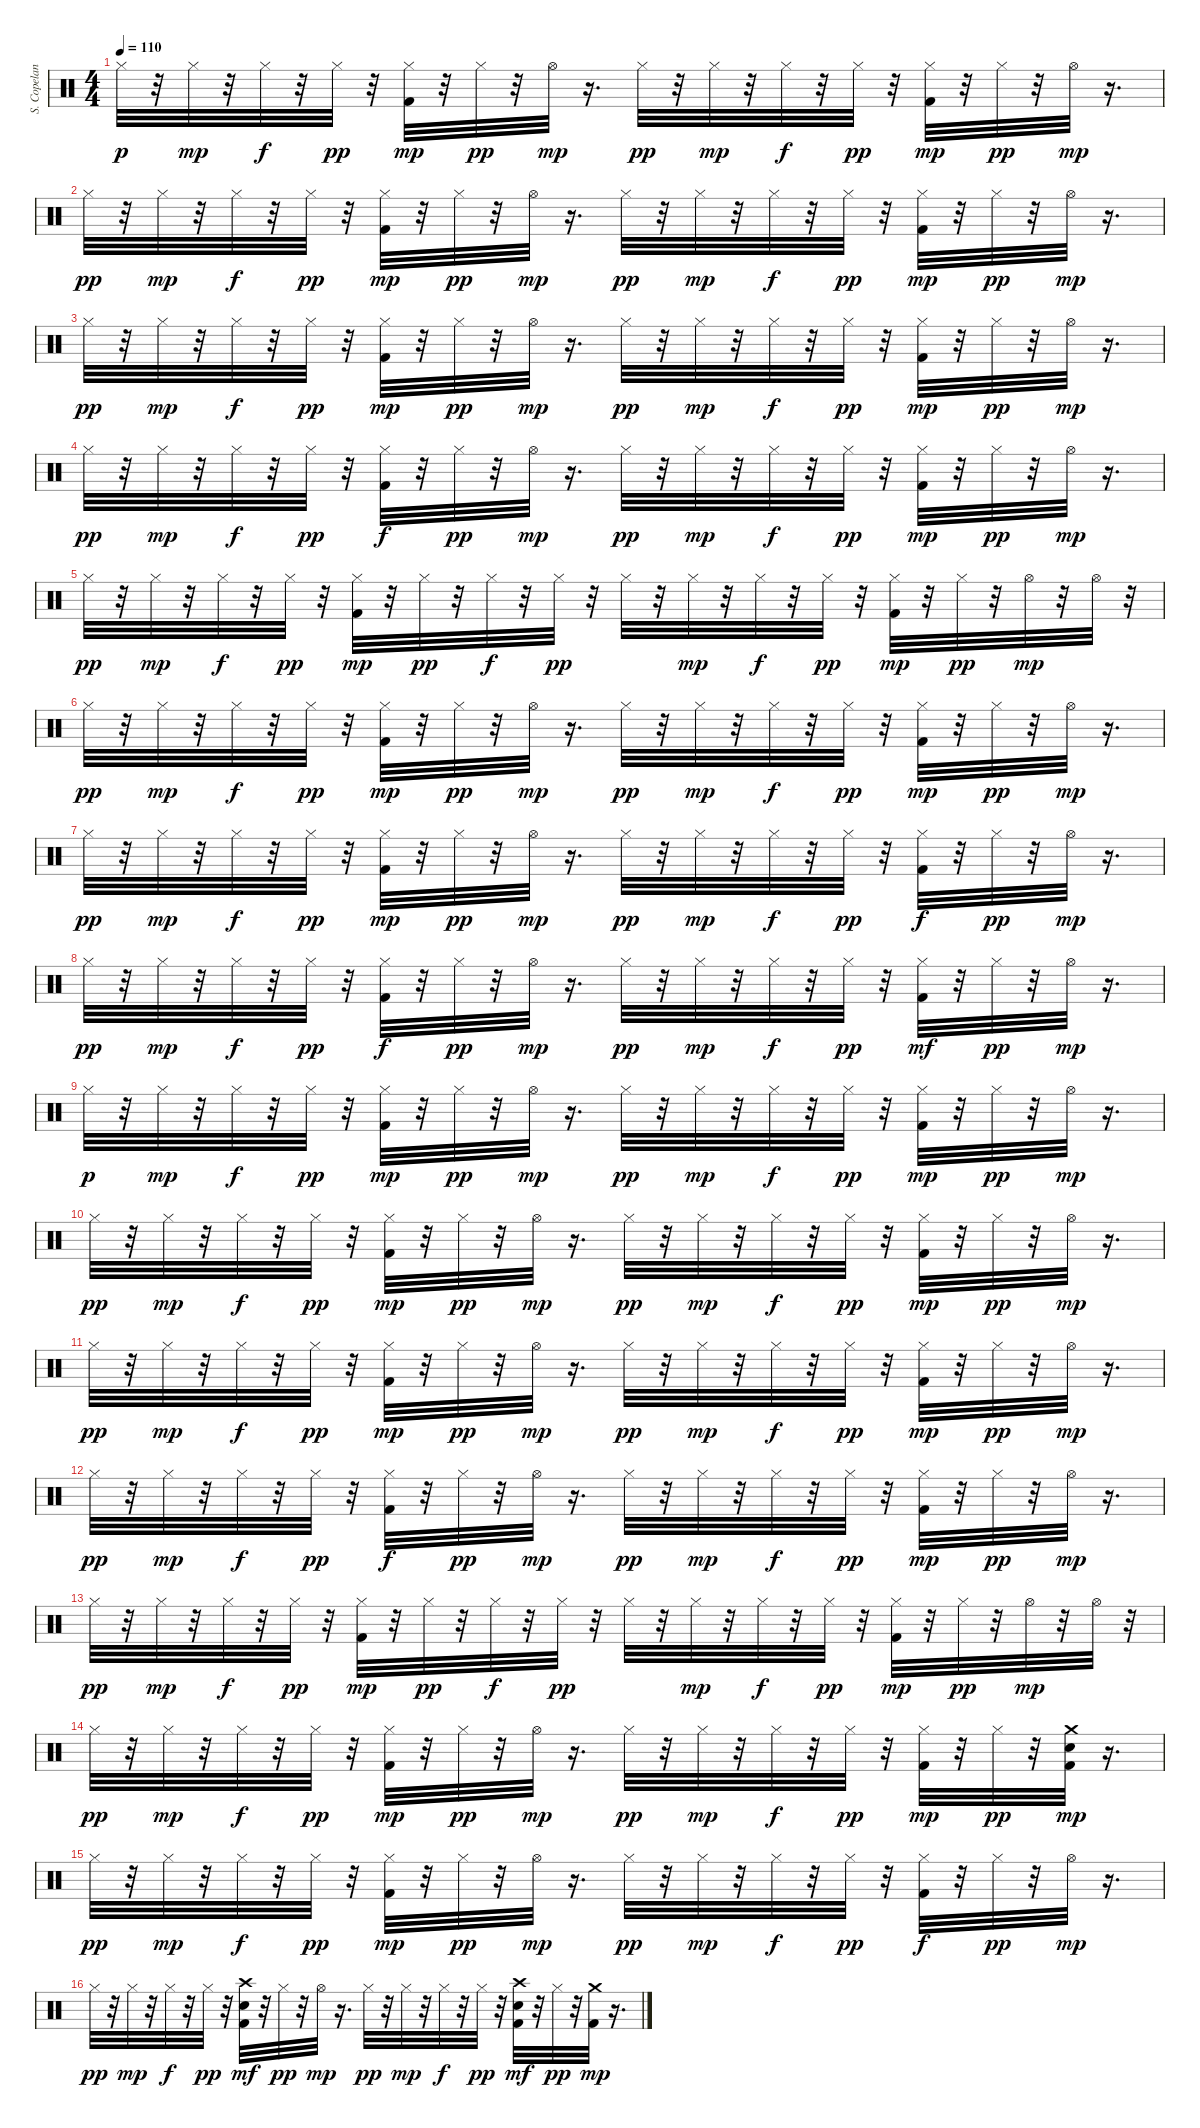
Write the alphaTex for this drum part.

\track ("S. Copeland" "S. Copelan") {instrument percussion}
\staff {score}
\articulation defaults
\ts (4 4)
\tempo 110
\clef neutral
\ks c "Hi-Hat (closed)".32{dy p}
r.32 "Hi-Hat (closed)".32{dy mp} r.32 "Hi-Hat (closed)".32{dy f} r.32 "Hi-Hat (closed)".32{dy pp} r.32 ("Kick (hit) 2" "Hi-Hat (closed)").32{dy mp} r.32 "Hi-Hat (closed)".32{dy pp} r.32 "Hi-Hat (open)".32{dy mp} r.16{d} "Hi-Hat (closed)".32{dy pp} r.32 "Hi-Hat (closed)".32{dy mp} r.32 "Hi-Hat (closed)".32{dy f} r.32 "Hi-Hat (closed)".32{dy pp} r.32 ("Kick (hit) 2" "Hi-Hat (closed)").32{dy mp} r.32 "Hi-Hat (closed)".32{dy pp} r.32 "Hi-Hat (open)".32{dy mp} r.16{d} |
"Hi-Hat (closed)".32{dy pp} r.32 "Hi-Hat (closed)".32{dy mp} r.32 "Hi-Hat (closed)".32{dy f} r.32 "Hi-Hat (closed)".32{dy pp} r.32 ("Kick (hit) 2" "Hi-Hat (closed)").32{dy mp} r.32 "Hi-Hat (closed)".32{dy pp} r.32 "Hi-Hat (open)".32{dy mp} r.16{d} "Hi-Hat (closed)".32{dy pp} r.32 "Hi-Hat (closed)".32{dy mp} r.32 "Hi-Hat (closed)".32{dy f} r.32 "Hi-Hat (closed)".32{dy pp} r.32 ("Kick (hit) 2" "Hi-Hat (closed)").32{dy mp} r.32 "Hi-Hat (closed)".32{dy pp} r.32 "Hi-Hat (open)".32{dy mp} r.16{d} |
"Hi-Hat (closed)".32{dy pp} r.32 "Hi-Hat (closed)".32{dy mp} r.32 "Hi-Hat (closed)".32{dy f} r.32 "Hi-Hat (closed)".32{dy pp} r.32 ("Kick (hit) 2" "Hi-Hat (closed)").32{dy mp} r.32 "Hi-Hat (closed)".32{dy pp} r.32 "Hi-Hat (open)".32{dy mp} r.16{d} "Hi-Hat (closed)".32{dy pp} r.32 "Hi-Hat (closed)".32{dy mp} r.32 "Hi-Hat (closed)".32{dy f} r.32 "Hi-Hat (closed)".32{dy pp} r.32 ("Kick (hit) 2" "Hi-Hat (closed)").32{dy mp} r.32 "Hi-Hat (closed)".32{dy pp} r.32 "Hi-Hat (open)".32{dy mp} r.16{d} |
"Hi-Hat (closed)".32{dy pp} r.32 "Hi-Hat (closed)".32{dy mp} r.32 "Hi-Hat (closed)".32{dy f} r.32 "Hi-Hat (closed)".32{dy pp} r.32 ("Kick (hit) 2" "Hi-Hat (closed)").32{dy f} r.32 "Hi-Hat (closed)".32{dy pp} r.32 "Hi-Hat (open)".32{dy mp} r.16{d} "Hi-Hat (closed)".32{dy pp} r.32 "Hi-Hat (closed)".32{dy mp} r.32 "Hi-Hat (closed)".32{dy f} r.32 "Hi-Hat (closed)".32{dy pp} r.32 ("Kick (hit) 2" "Hi-Hat (closed)").32{dy mp} r.32 "Hi-Hat (closed)".32{dy pp} r.32 "Hi-Hat (open)".32{dy mp} r.16{d} |
"Hi-Hat (closed)".32{dy pp} r.32 "Hi-Hat (closed)".32{dy mp} r.32 "Hi-Hat (closed)".32{dy f} r.32 "Hi-Hat (closed)".32{dy pp} r.32 ("Kick (hit) 2" "Hi-Hat (closed)").32{dy mp} r.32 "Hi-Hat (closed)".32{dy pp} r.32 "Hi-Hat (closed)".32{dy f} r.32 "Hi-Hat (closed)".32{dy pp} r.32 "Hi-Hat (closed)".32 r.32 "Hi-Hat (closed)".32{dy mp} r.32 "Hi-Hat (closed)".32{dy f} r.32 "Hi-Hat (closed)".32{dy pp} r.32 ("Kick (hit) 2" "Hi-Hat (closed)").32{dy mp} r.32 "Hi-Hat (closed)".32{dy pp} r.32 "Hi-Hat (open)".32{dy mp} r.32 "Hi-Hat (open)".32 r.32 |
"Hi-Hat (closed)".32{dy pp} r.32 "Hi-Hat (closed)".32{dy mp} r.32 "Hi-Hat (closed)".32{dy f} r.32 "Hi-Hat (closed)".32{dy pp} r.32 ("Kick (hit) 2" "Hi-Hat (closed)").32{dy mp} r.32 "Hi-Hat (closed)".32{dy pp} r.32 "Hi-Hat (open)".32{dy mp} r.16{d} "Hi-Hat (closed)".32{dy pp} r.32 "Hi-Hat (closed)".32{dy mp} r.32 "Hi-Hat (closed)".32{dy f} r.32 "Hi-Hat (closed)".32{dy pp} r.32 ("Kick (hit) 2" "Hi-Hat (closed)").32{dy mp} r.32 "Hi-Hat (closed)".32{dy pp} r.32 "Hi-Hat (open)".32{dy mp} r.16{d} |
"Hi-Hat (closed)".32{dy pp} r.32 "Hi-Hat (closed)".32{dy mp} r.32 "Hi-Hat (closed)".32{dy f} r.32 "Hi-Hat (closed)".32{dy pp} r.32 ("Kick (hit) 2" "Hi-Hat (closed)").32{dy mp} r.32 "Hi-Hat (closed)".32{dy pp} r.32 "Hi-Hat (open)".32{dy mp} r.16{d} "Hi-Hat (closed)".32{dy pp} r.32 "Hi-Hat (closed)".32{dy mp} r.32 "Hi-Hat (closed)".32{dy f} r.32 "Hi-Hat (closed)".32{dy pp} r.32 ("Kick (hit) 2" "Hi-Hat (closed)").32{dy f} r.32 "Hi-Hat (closed)".32{dy pp} r.32 "Hi-Hat (open)".32{dy mp} r.16{d} |
"Hi-Hat (closed)".32{dy pp} r.32 "Hi-Hat (closed)".32{dy mp} r.32 "Hi-Hat (closed)".32{dy f} r.32 "Hi-Hat (closed)".32{dy pp} r.32 ("Kick (hit) 2" "Hi-Hat (closed)").32{dy f} r.32 "Hi-Hat (closed)".32{dy pp} r.32 "Hi-Hat (open)".32{dy mp} r.16{d} "Hi-Hat (closed)".32{dy pp} r.32 "Hi-Hat (closed)".32{dy mp} r.32 "Hi-Hat (closed)".32{dy f} r.32 "Hi-Hat (closed)".32{dy pp} r.32 ("Kick (hit) 2" "Hi-Hat (closed)").32{dy mf} r.32 "Hi-Hat (closed)".32{dy pp} r.32 "Hi-Hat (open)".32{dy mp} r.16{d} |
"Hi-Hat (closed)".32{dy p} r.32 "Hi-Hat (closed)".32{dy mp} r.32 "Hi-Hat (closed)".32{dy f} r.32 "Hi-Hat (closed)".32{dy pp} r.32 ("Kick (hit) 2" "Hi-Hat (closed)").32{dy mp} r.32 "Hi-Hat (closed)".32{dy pp} r.32 "Hi-Hat (open)".32{dy mp} r.16{d} "Hi-Hat (closed)".32{dy pp} r.32 "Hi-Hat (closed)".32{dy mp} r.32 "Hi-Hat (closed)".32{dy f} r.32 "Hi-Hat (closed)".32{dy pp} r.32 ("Kick (hit) 2" "Hi-Hat (closed)").32{dy mp} r.32 "Hi-Hat (closed)".32{dy pp} r.32 "Hi-Hat (open)".32{dy mp} r.16{d} |
"Hi-Hat (closed)".32{dy pp} r.32 "Hi-Hat (closed)".32{dy mp} r.32 "Hi-Hat (closed)".32{dy f} r.32 "Hi-Hat (closed)".32{dy pp} r.32 ("Kick (hit) 2" "Hi-Hat (closed)").32{dy mp} r.32 "Hi-Hat (closed)".32{dy pp} r.32 "Hi-Hat (open)".32{dy mp} r.16{d} "Hi-Hat (closed)".32{dy pp} r.32 "Hi-Hat (closed)".32{dy mp} r.32 "Hi-Hat (closed)".32{dy f} r.32 "Hi-Hat (closed)".32{dy pp} r.32 ("Kick (hit) 2" "Hi-Hat (closed)").32{dy mp} r.32 "Hi-Hat (closed)".32{dy pp} r.32 "Hi-Hat (open)".32{dy mp} r.16{d} |
"Hi-Hat (closed)".32{dy pp} r.32 "Hi-Hat (closed)".32{dy mp} r.32 "Hi-Hat (closed)".32{dy f} r.32 "Hi-Hat (closed)".32{dy pp} r.32 ("Kick (hit) 2" "Hi-Hat (closed)").32{dy mp} r.32 "Hi-Hat (closed)".32{dy pp} r.32 "Hi-Hat (open)".32{dy mp} r.16{d} "Hi-Hat (closed)".32{dy pp} r.32 "Hi-Hat (closed)".32{dy mp} r.32 "Hi-Hat (closed)".32{dy f} r.32 "Hi-Hat (closed)".32{dy pp} r.32 ("Kick (hit) 2" "Hi-Hat (closed)").32{dy mp} r.32 "Hi-Hat (closed)".32{dy pp} r.32 "Hi-Hat (open)".32{dy mp} r.16{d} |
"Hi-Hat (closed)".32{dy pp} r.32 "Hi-Hat (closed)".32{dy mp} r.32 "Hi-Hat (closed)".32{dy f} r.32 "Hi-Hat (closed)".32{dy pp} r.32 ("Kick (hit) 2" "Hi-Hat (closed)").32{dy f} r.32 "Hi-Hat (closed)".32{dy pp} r.32 "Hi-Hat (open)".32{dy mp} r.16{d} "Hi-Hat (closed)".32{dy pp} r.32 "Hi-Hat (closed)".32{dy mp} r.32 "Hi-Hat (closed)".32{dy f} r.32 "Hi-Hat (closed)".32{dy pp} r.32 ("Kick (hit) 2" "Hi-Hat (closed)").32{dy mp} r.32 "Hi-Hat (closed)".32{dy pp} r.32 "Hi-Hat (open)".32{dy mp} r.16{d} |
"Hi-Hat (closed)".32{dy pp} r.32 "Hi-Hat (closed)".32{dy mp} r.32 "Hi-Hat (closed)".32{dy f} r.32 "Hi-Hat (closed)".32{dy pp} r.32 ("Kick (hit) 2" "Hi-Hat (closed)").32{dy mp} r.32 "Hi-Hat (closed)".32{dy pp} r.32 "Hi-Hat (closed)".32{dy f} r.32 "Hi-Hat (closed)".32{dy pp} r.32 "Hi-Hat (closed)".32 r.32 "Hi-Hat (closed)".32{dy mp} r.32 "Hi-Hat (closed)".32{dy f} r.32 "Hi-Hat (closed)".32{dy pp} r.32 ("Kick (hit) 2" "Hi-Hat (closed)").32{dy mp} r.32 "Hi-Hat (closed)".32{dy pp} r.32 "Hi-Hat (open)".32{dy mp} r.32 "Hi-Hat (open)".32 r.32 |
"Hi-Hat (closed)".32{dy pp} r.32 "Hi-Hat (closed)".32{dy mp} r.32 "Hi-Hat (closed)".32{dy f} r.32 "Hi-Hat (closed)".32{dy pp} r.32 ("Kick (hit) 2" "Hi-Hat (closed)").32{dy mp} r.32 "Hi-Hat (closed)".32{dy pp} r.32 "Hi-Hat (open)".32{dy mp} r.16{d} "Hi-Hat (closed)".32{dy pp} r.32 "Hi-Hat (closed)".32{dy mp} r.32 "Hi-Hat (closed)".32{dy f} r.32 "Hi-Hat (closed)".32{dy pp} r.32 ("Kick (hit) 2" "Hi-Hat (closed)").32{dy mp} r.32 "Hi-Hat (closed)".32{dy pp} r.32 ("Kick (hit) 2" "Electric Snare (hit)" "Crash medium (hit)").32{dy mp} r.16{d} |
"Hi-Hat (closed)".32{dy pp} r.32 "Hi-Hat (closed)".32{dy mp} r.32 "Hi-Hat (closed)".32{dy f} r.32 "Hi-Hat (closed)".32{dy pp} r.32 ("Kick (hit) 2" "Hi-Hat (closed)").32{dy mp} r.32 "Hi-Hat (closed)".32{dy pp} r.32 "Hi-Hat (open)".32{dy mp} r.16{d} "Hi-Hat (closed)".32{dy pp} r.32 "Hi-Hat (closed)".32{dy mp} r.32 "Hi-Hat (closed)".32{dy f} r.32 "Hi-Hat (closed)".32{dy pp} r.32 ("Kick (hit) 2" "Hi-Hat (closed)").32{dy f} r.32 "Hi-Hat (closed)".32{dy pp} r.32 "Hi-Hat (open)".32{dy mp} r.16{d} |
"Hi-Hat (closed)".32{dy pp} r.32 "Hi-Hat (closed)".32{dy mp} r.32 "Hi-Hat (closed)".32{dy f} r.32 "Hi-Hat (closed)".32{dy pp} r.32 ("Kick (hit) 2" "Electric Snare (hit)" "Crash high (hit)").32{dy mf} r.32 "Hi-Hat (closed)".32{dy pp} r.32 "Hi-Hat (open)".32{dy mp} r.16{d} "Hi-Hat (closed)".32{dy pp} r.32 "Hi-Hat (closed)".32{dy mp} r.32 "Hi-Hat (closed)".32{dy f} r.32 "Hi-Hat (closed)".32{dy pp} r.32 ("Kick (hit) 2" "Electric Snare (hit)" "Crash high (hit)").32{dy mf} r.32 "Hi-Hat (closed)".32{dy pp} r.32 ("Kick (hit) 2" "Crash medium (hit)").32{dy mp} r.16{d}
